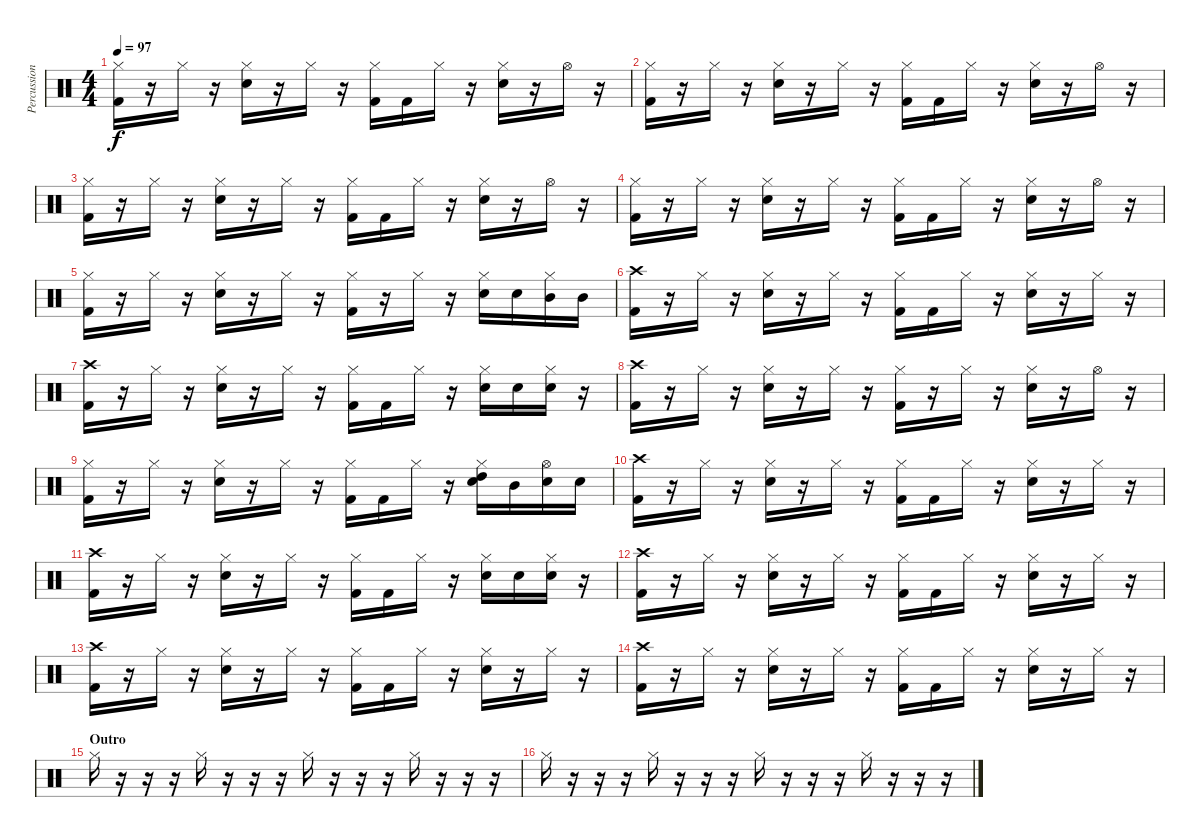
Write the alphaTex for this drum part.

\track ("Percussion" "Percussion") {instrument percussion}
\staff {score}
\articulation defaults
\ts (4 4)
\tempo 97
\clef neutral
\ks c
("Hi-Hat (closed)" "Kick (hit) 2").16{dy f} r.16 "Hi-Hat (closed)".16 r.16 ("Hi-Hat (closed)" "Snare (hit) 2").16 r.16 "Hi-Hat (closed)".16 r.16 ("Hi-Hat (closed)" "Kick (hit) 2").16 "Kick (hit) 2".16 "Hi-Hat (closed)".16 r.16 ("Hi-Hat (closed)" "Snare (hit) 2").16 r.16 "Hi-Hat (open)".16 r.16 |
("Hi-Hat (closed)" "Kick (hit) 2").16 r.16 "Hi-Hat (closed)".16 r.16 ("Hi-Hat (closed)" "Snare (hit) 2").16 r.16 "Hi-Hat (closed)".16 r.16 ("Hi-Hat (closed)" "Kick (hit) 2").16 "Kick (hit) 2".16 "Hi-Hat (closed)".16 r.16 ("Hi-Hat (closed)" "Snare (hit) 2").16 r.16 "Hi-Hat (open)".16 r.16 |
("Hi-Hat (closed)" "Kick (hit) 2").16 r.16 "Hi-Hat (closed)".16 r.16 ("Hi-Hat (closed)" "Snare (hit) 2").16 r.16 "Hi-Hat (closed)".16 r.16 ("Hi-Hat (closed)" "Kick (hit) 2").16 "Kick (hit) 2".16 "Hi-Hat (closed)".16 r.16 ("Hi-Hat (closed)" "Snare (hit) 2").16 r.16 "Hi-Hat (open)".16 r.16 |
("Hi-Hat (closed)" "Kick (hit) 2").16 r.16 "Hi-Hat (closed)".16 r.16 ("Hi-Hat (closed)" "Snare (hit) 2").16 r.16 "Hi-Hat (closed)".16 r.16 ("Hi-Hat (closed)" "Kick (hit) 2").16 "Kick (hit) 2".16 "Hi-Hat (closed)".16 r.16 ("Hi-Hat (closed)" "Snare (hit) 2").16 r.16 "Hi-Hat (open)".16 r.16 |
("Hi-Hat (closed)" "Kick (hit) 2").16 r.16 "Hi-Hat (closed)".16 r.16 ("Hi-Hat (closed)" "Snare (hit) 2").16 r.16 "Hi-Hat (closed)".16 r.16 ("Hi-Hat (closed)" "Kick (hit) 2").16 r.16 "Hi-Hat (closed)".16 r.16 ("Hi-Hat (closed)" "Snare (hit) 2").16 "Snare (hit) 2".16 ("Hi-Hat (closed)" "Mid Tom (hit)").16 "Mid Tom (hit)".16 |
("Crash high (hit)" "Kick (hit) 2").16 r.16 "Hi-Hat (closed)".16 r.16 ("Hi-Hat (closed)" "Snare (hit) 2").16 r.16 "Hi-Hat (closed)".16 r.16 ("Hi-Hat (closed)" "Kick (hit) 2").16 "Kick (hit) 2".16 "Hi-Hat (closed)".16 r.16 ("Hi-Hat (closed)" "Snare (hit) 2").16 r.16 "Hi-Hat (closed)".16 r.16 |
("Crash high (hit)" "Kick (hit) 2").16 r.16 "Hi-Hat (closed)".16 r.16 ("Hi-Hat (closed)" "Snare (hit) 2").16 r.16 "Hi-Hat (closed)".16 r.16 ("Hi-Hat (closed)" "Kick (hit) 2").16 "Kick (hit) 2".16 "Hi-Hat (closed)".16 r.16 ("Hi-Hat (closed)" "Snare (hit) 2").16 "Snare (hit) 2".16 ("Hi-Hat (closed)" "Snare (hit) 2").16 r.16 |
("Crash high (hit)" "Kick (hit) 2").16 r.16 "Hi-Hat (closed)".16 r.16 ("Hi-Hat (closed)" "Snare (hit) 2").16 r.16 "Hi-Hat (closed)".16 r.16 ("Hi-Hat (closed)" "Kick (hit) 2").16 r.16 "Hi-Hat (closed)".16 r.16 ("Hi-Hat (closed)" "Snare (hit) 2").16 r.16 "Hi-Hat (open)".16 r.16 |
("Hi-Hat (closed)" "Kick (hit) 2").16 r.16 "Hi-Hat (closed)".16 r.16 ("Hi-Hat (closed)" "Snare (hit) 2").16 r.16 "Hi-Hat (closed)".16 r.16 ("Hi-Hat (closed)" "Kick (hit) 2").16 "Kick (hit) 2".16 "Hi-Hat (closed)".16 r.16 ("Hi-Hat (closed)" "Snare (hit) 2" "High Tom (hit)").16 "Mid Tom (hit)".16 ("Hi-Hat (open)" "Snare (hit) 2").16 "Snare (hit) 2".16 |
("Crash high (hit)" "Kick (hit) 2").16 r.16 "Hi-Hat (closed)".16 r.16 ("Hi-Hat (closed)" "Snare (hit) 2").16 r.16 "Hi-Hat (closed)".16 r.16 ("Hi-Hat (closed)" "Kick (hit) 2").16 "Kick (hit) 2".16 "Hi-Hat (closed)".16 r.16 ("Hi-Hat (closed)" "Snare (hit) 2").16 r.16 "Hi-Hat (closed)".16 r.16 |
("Crash high (hit)" "Kick (hit) 2").16 r.16 "Hi-Hat (closed)".16 r.16 ("Hi-Hat (closed)" "Snare (hit) 2").16 r.16 "Hi-Hat (closed)".16 r.16 ("Hi-Hat (closed)" "Kick (hit) 2").16 "Kick (hit) 2".16 "Hi-Hat (closed)".16 r.16 ("Hi-Hat (closed)" "Snare (hit) 2").16 "Snare (hit) 2".16 ("Hi-Hat (closed)" "Snare (hit) 2").16 r.16 |
("Crash high (hit)" "Kick (hit) 2").16 r.16 "Hi-Hat (closed)".16 r.16 ("Hi-Hat (closed)" "Snare (hit) 2").16 r.16 "Hi-Hat (closed)".16 r.16 ("Hi-Hat (closed)" "Kick (hit) 2").16 "Kick (hit) 2".16 "Hi-Hat (closed)".16 r.16 ("Hi-Hat (closed)" "Snare (hit) 2").16 r.16 "Hi-Hat (closed)".16 r.16 |
("Crash high (hit)" "Kick (hit) 2").16 r.16 "Hi-Hat (closed)".16 r.16 ("Hi-Hat (closed)" "Snare (hit) 2").16 r.16 "Hi-Hat (closed)".16 r.16 ("Hi-Hat (closed)" "Kick (hit) 2").16 "Kick (hit) 2".16 "Hi-Hat (closed)".16 r.16 ("Hi-Hat (closed)" "Snare (hit) 2").16 r.16 "Hi-Hat (closed)".16 r.16 |
("Crash high (hit)" "Kick (hit) 2").16 r.16 "Hi-Hat (closed)".16 r.16 ("Hi-Hat (closed)" "Snare (hit) 2").16 r.16 "Hi-Hat (closed)".16 r.16 ("Hi-Hat (closed)" "Kick (hit) 2").16 "Kick (hit) 2".16 "Hi-Hat (closed)".16 r.16 ("Hi-Hat (closed)" "Snare (hit) 2").16 r.16 "Hi-Hat (closed)".16 r.16 |
\section ("" "Outro")
"Hi-Hat (closed)".16 r.16 r.16 r.16 "Hi-Hat (closed)".16 r.16 r.16 r.16 "Hi-Hat (closed)".16 r.16 r.16 r.16 "Hi-Hat (closed)".16 r.16 r.16 r.16 |
"Hi-Hat (closed)".16 r.16 r.16 r.16 "Hi-Hat (closed)".16 r.16 r.16 r.16 "Hi-Hat (closed)".16 r.16 r.16 r.16 "Hi-Hat (closed)".16 r.16 r.16 r.16
